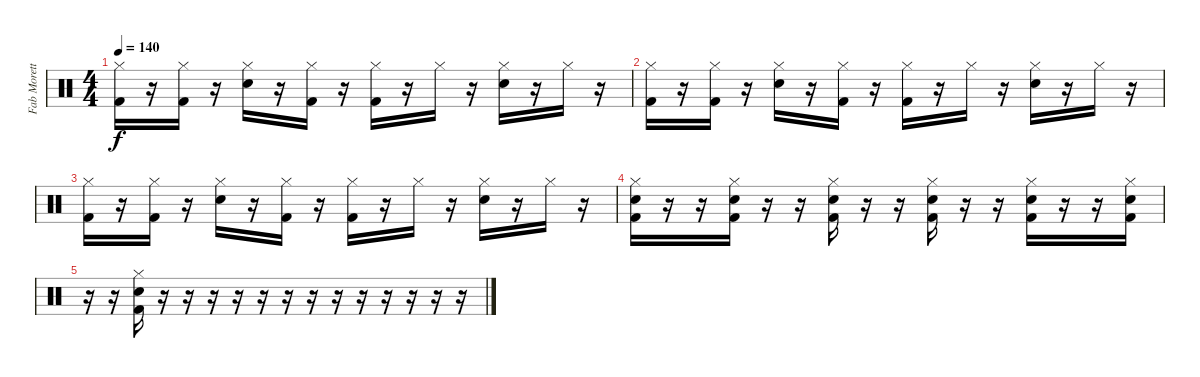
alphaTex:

\track ("Fab Moretti - Drums" "Fab Morett") {instrument percussion}
\staff {score}
\articulation defaults
\ts (4 4)
\tempo 140
\clef neutral
\ks c
("Hi-Hat (closed)" "Kick (hit) 2").16{dy f} r.16 ("Hi-Hat (closed)" "Kick (hit) 2").16 r.16 ("Hi-Hat (closed)" "Snare (hit) 2").16 r.16 ("Hi-Hat (closed)" "Kick (hit) 2").16 r.16 ("Hi-Hat (closed)" "Kick (hit) 2").16 r.16 "Hi-Hat (closed)".16 r.16 ("Hi-Hat (closed)" "Snare (hit) 2").16 r.16 "Hi-Hat (closed)".16 r.16 |
("Hi-Hat (closed)" "Kick (hit) 2").16 r.16 ("Hi-Hat (closed)" "Kick (hit) 2").16 r.16 ("Hi-Hat (closed)" "Snare (hit) 2").16 r.16 ("Hi-Hat (closed)" "Kick (hit) 2").16 r.16 ("Hi-Hat (closed)" "Kick (hit) 2").16 r.16 "Hi-Hat (closed)".16 r.16 ("Hi-Hat (closed)" "Snare (hit) 2").16 r.16 "Hi-Hat (closed)".16 r.16 |
("Hi-Hat (closed)" "Kick (hit) 2").16 r.16 ("Hi-Hat (closed)" "Kick (hit) 2").16 r.16 ("Hi-Hat (closed)" "Snare (hit) 2").16 r.16 ("Hi-Hat (closed)" "Kick (hit) 2").16 r.16 ("Hi-Hat (closed)" "Kick (hit) 2").16 r.16 "Hi-Hat (closed)".16 r.16 ("Hi-Hat (closed)" "Snare (hit) 2").16 r.16 "Hi-Hat (closed)".16 r.16 |
("Hi-Hat (closed)" "Snare (hit) 2" "Kick (hit) 2").16 r.16 r.16 ("Hi-Hat (closed)" "Snare (hit) 2" "Kick (hit) 2").16 r.16 r.16 ("Hi-Hat (closed)" "Snare (hit) 2" "Kick (hit) 2").16 r.16 r.16 ("Hi-Hat (closed)" "Snare (hit) 2" "Kick (hit) 2").16 r.16 r.16 ("Hi-Hat (closed)" "Snare (hit) 2" "Kick (hit) 2").16 r.16 r.16 ("Hi-Hat (closed)" "Snare (hit) 2" "Kick (hit) 2").16 |
r.16 r.16 ("Hi-Hat (closed)" "Snare (hit) 2" "Kick (hit) 2").16 r.16 r.16 r.16 r.16 r.16 r.16 r.16 r.16 r.16 r.16 r.16 r.16 r.16
